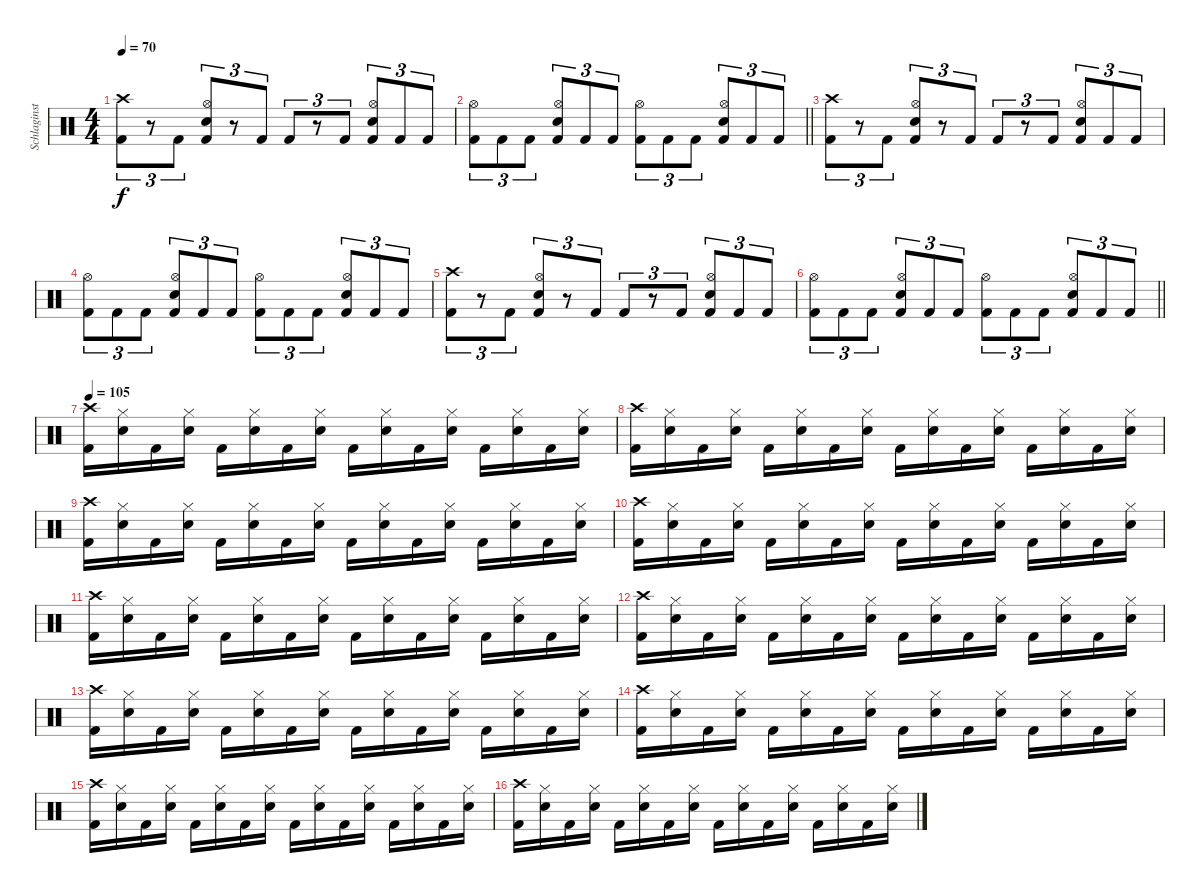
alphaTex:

\track ("Schlaginstrumente - Auswahl" "Schlaginst") {instrument percussion}
\staff {score}
\articulation defaults
\ts (4 4)
\tempo 70
\clef neutral
\ks c
("Crash high (hit)" "Kick (hit) 2").8{tu (3 2) dy f} r.8{tu (3 2)} "Kick (hit) 2".8{tu (3 2)} ("Hi-Hat (open)" "Snare (hit) 2" "Kick (hit) 2").8{tu (3 2)} r.8{tu (3 2)} "Kick (hit) 2".8{tu (3 2)} "Kick (hit) 2".8{tu (3 2)} r.8{tu (3 2)} "Kick (hit) 2".8{tu (3 2)} ("Hi-Hat (open)" "Snare (hit) 2" "Kick (hit) 2").8{tu (3 2)} "Kick (hit) 2".8{tu (3 2)} "Kick (hit) 2".8{tu (3 2)} |
\barLineRight lightlight
("Hi-Hat (open)" "Kick (hit) 2").8{tu (3 2)} "Kick (hit) 2".8{tu (3 2)} "Kick (hit) 2".8{tu (3 2)} ("Hi-Hat (open)" "Snare (hit) 2" "Kick (hit) 2").8{tu (3 2)} "Kick (hit) 2".8{tu (3 2)} "Kick (hit) 2".8{tu (3 2)} ("Hi-Hat (open)" "Kick (hit) 2").8{tu (3 2)} "Kick (hit) 2".8{tu (3 2)} "Kick (hit) 2".8{tu (3 2)} ("Hi-Hat (open)" "Snare (hit) 2" "Kick (hit) 2").8{tu (3 2)} "Kick (hit) 2".8{tu (3 2)} "Kick (hit) 2".8{tu (3 2)} |
("Crash high (hit)" "Kick (hit) 2").8{tu (3 2)} r.8{tu (3 2)} "Kick (hit) 2".8{tu (3 2)} ("Hi-Hat (open)" "Snare (hit) 2" "Kick (hit) 2").8{tu (3 2)} r.8{tu (3 2)} "Kick (hit) 2".8{tu (3 2)} "Kick (hit) 2".8{tu (3 2)} r.8{tu (3 2)} "Kick (hit) 2".8{tu (3 2)} ("Hi-Hat (open)" "Snare (hit) 2" "Kick (hit) 2").8{tu (3 2)} "Kick (hit) 2".8{tu (3 2)} "Kick (hit) 2".8{tu (3 2)} |
("Hi-Hat (open)" "Kick (hit) 2").8{tu (3 2)} "Kick (hit) 2".8{tu (3 2)} "Kick (hit) 2".8{tu (3 2)} ("Hi-Hat (open)" "Snare (hit) 2" "Kick (hit) 2").8{tu (3 2)} "Kick (hit) 2".8{tu (3 2)} "Kick (hit) 2".8{tu (3 2)} ("Hi-Hat (open)" "Kick (hit) 2").8{tu (3 2)} "Kick (hit) 2".8{tu (3 2)} "Kick (hit) 2".8{tu (3 2)} ("Hi-Hat (open)" "Snare (hit) 2" "Kick (hit) 2").8{tu (3 2)} "Kick (hit) 2".8{tu (3 2)} "Kick (hit) 2".8{tu (3 2)} |
("Crash high (hit)" "Kick (hit) 2").8{tu (3 2)} r.8{tu (3 2)} "Kick (hit) 2".8{tu (3 2)} ("Hi-Hat (open)" "Snare (hit) 2" "Kick (hit) 2").8{tu (3 2)} r.8{tu (3 2)} "Kick (hit) 2".8{tu (3 2)} "Kick (hit) 2".8{tu (3 2)} r.8{tu (3 2)} "Kick (hit) 2".8{tu (3 2)} ("Hi-Hat (open)" "Snare (hit) 2" "Kick (hit) 2").8{tu (3 2)} "Kick (hit) 2".8{tu (3 2)} "Kick (hit) 2".8{tu (3 2)} |
\barLineRight lightlight
("Hi-Hat (open)" "Kick (hit) 2").8{tu (3 2)} "Kick (hit) 2".8{tu (3 2)} "Kick (hit) 2".8{tu (3 2)} ("Hi-Hat (open)" "Snare (hit) 2" "Kick (hit) 2").8{tu (3 2)} "Kick (hit) 2".8{tu (3 2)} "Kick (hit) 2".8{tu (3 2)} ("Hi-Hat (open)" "Kick (hit) 2").8{tu (3 2)} "Kick (hit) 2".8{tu (3 2)} "Kick (hit) 2".8{tu (3 2)} ("Hi-Hat (open)" "Snare (hit) 2" "Kick (hit) 2").8{tu (3 2)} "Kick (hit) 2".8{tu (3 2)} "Kick (hit) 2".8{tu (3 2)} |
\tempo 105
("Crash high (hit)" "Kick (hit) 2").16 ("Hi-Hat (closed)" "Snare (hit) 2").16 "Kick (hit) 2".16 ("Hi-Hat (closed)" "Snare (hit) 2").16 "Kick (hit) 2".16 ("Hi-Hat (closed)" "Snare (hit) 2").16 "Kick (hit) 2".16 ("Hi-Hat (closed)" "Snare (hit) 2").16 "Kick (hit) 2".16 ("Hi-Hat (closed)" "Snare (hit) 2").16 "Kick (hit) 2".16 ("Hi-Hat (closed)" "Snare (hit) 2").16 "Kick (hit) 2".16 ("Hi-Hat (closed)" "Snare (hit) 2").16 "Kick (hit) 2".16 ("Hi-Hat (closed)" "Snare (hit) 2").16 |
("Crash high (hit)" "Kick (hit) 2").16 ("Hi-Hat (closed)" "Snare (hit) 2").16 "Kick (hit) 2".16 ("Hi-Hat (closed)" "Snare (hit) 2").16 "Kick (hit) 2".16 ("Hi-Hat (closed)" "Snare (hit) 2").16 "Kick (hit) 2".16 ("Hi-Hat (closed)" "Snare (hit) 2").16 "Kick (hit) 2".16 ("Hi-Hat (closed)" "Snare (hit) 2").16 "Kick (hit) 2".16 ("Hi-Hat (closed)" "Snare (hit) 2").16 "Kick (hit) 2".16 ("Hi-Hat (closed)" "Snare (hit) 2").16 "Kick (hit) 2".16 ("Hi-Hat (closed)" "Snare (hit) 2").16 |
("Crash high (hit)" "Kick (hit) 2").16 ("Hi-Hat (closed)" "Snare (hit) 2").16 "Kick (hit) 2".16 ("Hi-Hat (closed)" "Snare (hit) 2").16 "Kick (hit) 2".16 ("Hi-Hat (closed)" "Snare (hit) 2").16 "Kick (hit) 2".16 ("Hi-Hat (closed)" "Snare (hit) 2").16 "Kick (hit) 2".16 ("Hi-Hat (closed)" "Snare (hit) 2").16 "Kick (hit) 2".16 ("Hi-Hat (closed)" "Snare (hit) 2").16 "Kick (hit) 2".16 ("Hi-Hat (closed)" "Snare (hit) 2").16 "Kick (hit) 2".16 ("Hi-Hat (closed)" "Snare (hit) 2").16 |
("Crash high (hit)" "Kick (hit) 2").16 ("Hi-Hat (closed)" "Snare (hit) 2").16 "Kick (hit) 2".16 ("Hi-Hat (closed)" "Snare (hit) 2").16 "Kick (hit) 2".16 ("Hi-Hat (closed)" "Snare (hit) 2").16 "Kick (hit) 2".16 ("Hi-Hat (closed)" "Snare (hit) 2").16 "Kick (hit) 2".16 ("Hi-Hat (closed)" "Snare (hit) 2").16 "Kick (hit) 2".16 ("Hi-Hat (closed)" "Snare (hit) 2").16 "Kick (hit) 2".16 ("Hi-Hat (closed)" "Snare (hit) 2").16 "Kick (hit) 2".16 ("Hi-Hat (closed)" "Snare (hit) 2").16 |
("Crash high (hit)" "Kick (hit) 2").16 ("Hi-Hat (closed)" "Snare (hit) 2").16 "Kick (hit) 2".16 ("Hi-Hat (closed)" "Snare (hit) 2").16 "Kick (hit) 2".16 ("Hi-Hat (closed)" "Snare (hit) 2").16 "Kick (hit) 2".16 ("Hi-Hat (closed)" "Snare (hit) 2").16 "Kick (hit) 2".16 ("Hi-Hat (closed)" "Snare (hit) 2").16 "Kick (hit) 2".16 ("Hi-Hat (closed)" "Snare (hit) 2").16 "Kick (hit) 2".16 ("Hi-Hat (closed)" "Snare (hit) 2").16 "Kick (hit) 2".16 ("Hi-Hat (closed)" "Snare (hit) 2").16 |
("Crash high (hit)" "Kick (hit) 2").16 ("Hi-Hat (closed)" "Snare (hit) 2").16 "Kick (hit) 2".16 ("Hi-Hat (closed)" "Snare (hit) 2").16 "Kick (hit) 2".16 ("Hi-Hat (closed)" "Snare (hit) 2").16 "Kick (hit) 2".16 ("Hi-Hat (closed)" "Snare (hit) 2").16 "Kick (hit) 2".16 ("Hi-Hat (closed)" "Snare (hit) 2").16 "Kick (hit) 2".16 ("Hi-Hat (closed)" "Snare (hit) 2").16 "Kick (hit) 2".16 ("Hi-Hat (closed)" "Snare (hit) 2").16 "Kick (hit) 2".16 ("Hi-Hat (closed)" "Snare (hit) 2").16 |
("Crash high (hit)" "Kick (hit) 2").16 ("Hi-Hat (closed)" "Snare (hit) 2").16 "Kick (hit) 2".16 ("Hi-Hat (closed)" "Snare (hit) 2").16 "Kick (hit) 2".16 ("Hi-Hat (closed)" "Snare (hit) 2").16 "Kick (hit) 2".16 ("Hi-Hat (closed)" "Snare (hit) 2").16 "Kick (hit) 2".16 ("Hi-Hat (closed)" "Snare (hit) 2").16 "Kick (hit) 2".16 ("Hi-Hat (closed)" "Snare (hit) 2").16 "Kick (hit) 2".16 ("Hi-Hat (closed)" "Snare (hit) 2").16 "Kick (hit) 2".16 ("Hi-Hat (closed)" "Snare (hit) 2").16 |
("Crash high (hit)" "Kick (hit) 2").16 ("Hi-Hat (closed)" "Snare (hit) 2").16 "Kick (hit) 2".16 ("Hi-Hat (closed)" "Snare (hit) 2").16 "Kick (hit) 2".16 ("Hi-Hat (closed)" "Snare (hit) 2").16 "Kick (hit) 2".16 ("Hi-Hat (closed)" "Snare (hit) 2").16 "Kick (hit) 2".16 ("Hi-Hat (closed)" "Snare (hit) 2").16 "Kick (hit) 2".16 ("Hi-Hat (closed)" "Snare (hit) 2").16 "Kick (hit) 2".16 ("Hi-Hat (closed)" "Snare (hit) 2").16 "Kick (hit) 2".16 ("Hi-Hat (closed)" "Snare (hit) 2").16 |
("Crash high (hit)" "Kick (hit) 2").16 ("Hi-Hat (closed)" "Snare (hit) 2").16 "Kick (hit) 2".16 ("Hi-Hat (closed)" "Snare (hit) 2").16 "Kick (hit) 2".16 ("Hi-Hat (closed)" "Snare (hit) 2").16 "Kick (hit) 2".16 ("Hi-Hat (closed)" "Snare (hit) 2").16 "Kick (hit) 2".16 ("Hi-Hat (closed)" "Snare (hit) 2").16 "Kick (hit) 2".16 ("Hi-Hat (closed)" "Snare (hit) 2").16 "Kick (hit) 2".16 ("Hi-Hat (closed)" "Snare (hit) 2").16 "Kick (hit) 2".16 ("Hi-Hat (closed)" "Snare (hit) 2").16 |
("Crash high (hit)" "Kick (hit) 2").16 ("Hi-Hat (closed)" "Snare (hit) 2").16 "Kick (hit) 2".16 ("Hi-Hat (closed)" "Snare (hit) 2").16 "Kick (hit) 2".16 ("Hi-Hat (closed)" "Snare (hit) 2").16 "Kick (hit) 2".16 ("Hi-Hat (closed)" "Snare (hit) 2").16 "Kick (hit) 2".16 ("Hi-Hat (closed)" "Snare (hit) 2").16 "Kick (hit) 2".16 ("Hi-Hat (closed)" "Snare (hit) 2").16 "Kick (hit) 2".16 ("Hi-Hat (closed)" "Snare (hit) 2").16 "Kick (hit) 2".16 ("Hi-Hat (closed)" "Snare (hit) 2").16
